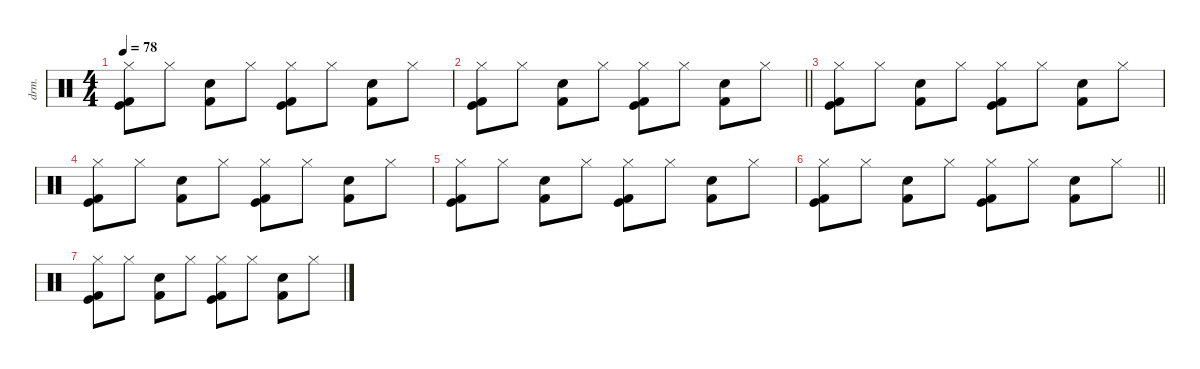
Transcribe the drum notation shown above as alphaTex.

\defaultSystemsLayout 4
\hideDynamics
\bracketExtendMode nobrackets
\otherSystemsTrackNameOrientation horizontal
\track ("Drums" "drm.") {instrument percussion}
\staff {score}
\articulation defaults
\ts (4 4)
\tempo 78
\clef neutral
\ks c
("Hi-Hat (closed)" "Kick (hit)" "Kick (hit) 2").8{dy f} "Hi-Hat (closed)".8 ("Snare (hit) 2" "Kick (hit) 2").8 "Hi-Hat (closed)".8 ("Hi-Hat (closed)" "Kick (hit)" "Kick (hit) 2").8 "Hi-Hat (closed)".8 ("Snare (hit) 2" "Kick (hit) 2").8 "Hi-Hat (closed)".8 |
\barLineRight lightlight
("Hi-Hat (closed)" "Kick (hit)" "Kick (hit) 2").8 "Hi-Hat (closed)".8 ("Snare (hit) 2" "Kick (hit) 2").8 "Hi-Hat (closed)".8 ("Hi-Hat (closed)" "Kick (hit)" "Kick (hit) 2").8 "Hi-Hat (closed)".8 ("Snare (hit) 2" "Kick (hit) 2").8 "Hi-Hat (closed)".8 |
("Hi-Hat (closed)" "Kick (hit)" "Kick (hit) 2").8 "Hi-Hat (closed)".8 ("Snare (hit) 2" "Kick (hit) 2").8 "Hi-Hat (closed)".8 ("Hi-Hat (closed)" "Kick (hit)" "Kick (hit) 2").8 "Hi-Hat (closed)".8 ("Snare (hit) 2" "Kick (hit) 2").8 "Hi-Hat (closed)".8 |
("Hi-Hat (closed)" "Kick (hit)" "Kick (hit) 2").8 "Hi-Hat (closed)".8 ("Snare (hit) 2" "Kick (hit) 2").8 "Hi-Hat (closed)".8 ("Hi-Hat (closed)" "Kick (hit)" "Kick (hit) 2").8 "Hi-Hat (closed)".8 ("Snare (hit) 2" "Kick (hit) 2").8 "Hi-Hat (closed)".8 |
("Hi-Hat (closed)" "Kick (hit)" "Kick (hit) 2").8 "Hi-Hat (closed)".8 ("Snare (hit) 2" "Kick (hit) 2").8 "Hi-Hat (closed)".8 ("Hi-Hat (closed)" "Kick (hit)" "Kick (hit) 2").8 "Hi-Hat (closed)".8 ("Snare (hit) 2" "Kick (hit) 2").8 "Hi-Hat (closed)".8 |
\barLineRight lightlight
("Hi-Hat (closed)" "Kick (hit)" "Kick (hit) 2").8 "Hi-Hat (closed)".8 ("Snare (hit) 2" "Kick (hit) 2").8 "Hi-Hat (closed)".8 ("Hi-Hat (closed)" "Kick (hit)" "Kick (hit) 2").8 "Hi-Hat (closed)".8 ("Snare (hit) 2" "Kick (hit) 2").8 "Hi-Hat (closed)".8 |
("Hi-Hat (closed)" "Kick (hit)" "Kick (hit) 2").8 "Hi-Hat (closed)".8 ("Snare (hit) 2" "Kick (hit) 2").8 "Hi-Hat (closed)".8 ("Hi-Hat (closed)" "Kick (hit)" "Kick (hit) 2").8 "Hi-Hat (closed)".8 ("Snare (hit) 2" "Kick (hit) 2").8 "Hi-Hat (closed)".8
